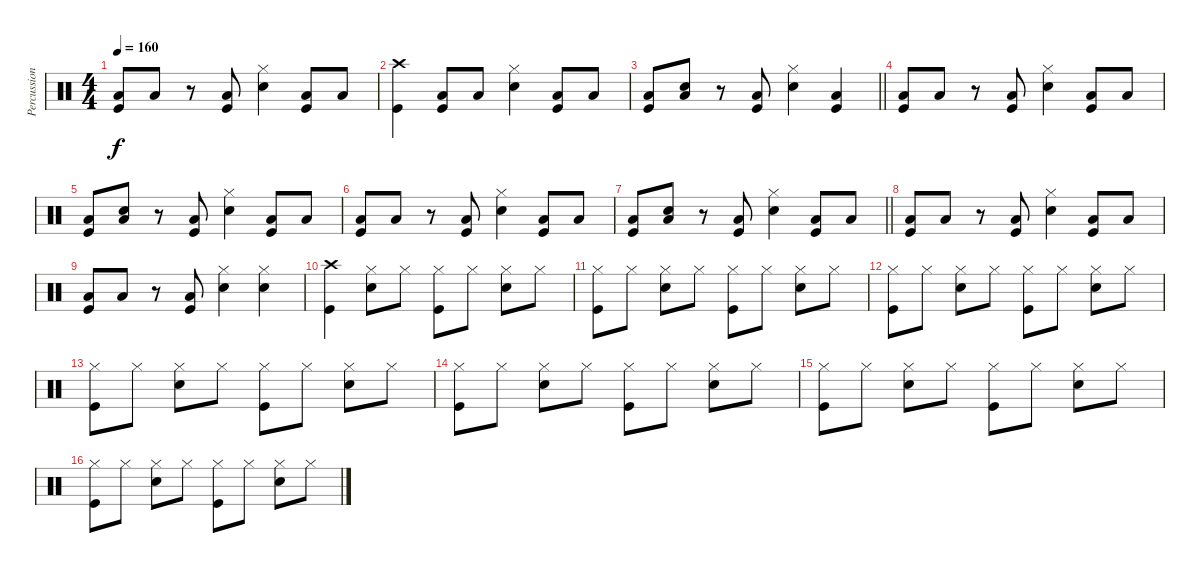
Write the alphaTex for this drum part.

\track ("Percussion" "Percussion") {instrument percussion}
\staff {score}
\articulation defaults
\ts (4 4)
\tempo 160
\clef neutral
\ks c
("Low Tom (hit)" "Kick (hit)").8{dy f} "Low Tom (hit)".8 r.8 ("Low Tom (hit)" "Kick (hit)").8 ("Hi-Hat (closed)" "Snare (hit) 2").4 ("Low Tom (hit)" "Kick (hit)").8 "Low Tom (hit)".8 |
("Kick (hit)" "Crash high (hit)").4 ("Low Tom (hit)" "Kick (hit)").8 "Low Tom (hit)".8 ("Hi-Hat (closed)" "Snare (hit) 2").4 ("Low Tom (hit)" "Kick (hit)").8 "Low Tom (hit)".8 |
\barLineRight lightlight
("Low Tom (hit)" "Kick (hit)").8 ("Low Tom (hit)" "Snare (hit) 2").8 r.8 ("Low Tom (hit)" "Kick (hit)").8 ("Hi-Hat (closed)" "Snare (hit) 2").4 ("Low Tom (hit)" "Kick (hit)").4 |
("Low Tom (hit)" "Kick (hit)").8 "Low Tom (hit)".8 r.8 ("Low Tom (hit)" "Kick (hit)").8 ("Hi-Hat (closed)" "Snare (hit) 2").4 ("Low Tom (hit)" "Kick (hit)").8 "Low Tom (hit)".8 |
("Low Tom (hit)" "Kick (hit)").8 ("Low Tom (hit)" "Snare (hit) 2").8 r.8 ("Low Tom (hit)" "Kick (hit)").8 ("Hi-Hat (closed)" "Snare (hit) 2").4 ("Low Tom (hit)" "Kick (hit)").8 "Low Tom (hit)".8 |
("Low Tom (hit)" "Kick (hit)").8 "Low Tom (hit)".8 r.8 ("Low Tom (hit)" "Kick (hit)").8 ("Hi-Hat (closed)" "Snare (hit) 2").4 ("Low Tom (hit)" "Kick (hit)").8 "Low Tom (hit)".8 |
\barLineRight lightlight
("Low Tom (hit)" "Kick (hit)").8 ("Low Tom (hit)" "Snare (hit) 2").8 r.8 ("Low Tom (hit)" "Kick (hit)").8 ("Hi-Hat (closed)" "Snare (hit) 2").4 ("Low Tom (hit)" "Kick (hit)").8 "Low Tom (hit)".8 |
("Low Tom (hit)" "Kick (hit)").8 "Low Tom (hit)".8 r.8 ("Low Tom (hit)" "Kick (hit)").8 ("Hi-Hat (closed)" "Snare (hit) 2").4 ("Low Tom (hit)" "Kick (hit)").8 "Low Tom (hit)".8 |
("Low Tom (hit)" "Kick (hit)").8 "Low Tom (hit)".8 r.8 ("Low Tom (hit)" "Kick (hit)").8 ("Hi-Hat (closed)" "Snare (hit) 2").4 ("Hi-Hat (closed)" "Snare (hit) 2").4 |
("Kick (hit)" "Crash high (hit)").4 ("Hi-Hat (closed)" "Snare (hit) 2").8 "Hi-Hat (closed)".8 ("Kick (hit)" "Hi-Hat (closed)").8 "Hi-Hat (closed)".8 ("Hi-Hat (closed)" "Snare (hit) 2").8 "Hi-Hat (closed)".8 |
("Kick (hit)" "Hi-Hat (closed)").8 "Hi-Hat (closed)".8 ("Hi-Hat (closed)" "Snare (hit) 2").8 "Hi-Hat (closed)".8 ("Kick (hit)" "Hi-Hat (closed)").8 "Hi-Hat (closed)".8 ("Hi-Hat (closed)" "Snare (hit) 2").8 "Hi-Hat (closed)".8 |
("Kick (hit)" "Hi-Hat (closed)").8 "Hi-Hat (closed)".8 ("Hi-Hat (closed)" "Snare (hit) 2").8 "Hi-Hat (closed)".8 ("Kick (hit)" "Hi-Hat (closed)").8 "Hi-Hat (closed)".8 ("Hi-Hat (closed)" "Snare (hit) 2").8 "Hi-Hat (closed)".8 |
("Kick (hit)" "Hi-Hat (closed)").8 "Hi-Hat (closed)".8 ("Hi-Hat (closed)" "Snare (hit) 2").8 "Hi-Hat (closed)".8 ("Kick (hit)" "Hi-Hat (closed)").8 "Hi-Hat (closed)".8 ("Hi-Hat (closed)" "Snare (hit) 2").8 "Hi-Hat (closed)".8 |
("Kick (hit)" "Hi-Hat (closed)").8 "Hi-Hat (closed)".8 ("Hi-Hat (closed)" "Snare (hit) 2").8 "Hi-Hat (closed)".8 ("Kick (hit)" "Hi-Hat (closed)").8 "Hi-Hat (closed)".8 ("Hi-Hat (closed)" "Snare (hit) 2").8 "Hi-Hat (closed)".8 |
("Kick (hit)" "Hi-Hat (closed)").8 "Hi-Hat (closed)".8 ("Hi-Hat (closed)" "Snare (hit) 2").8 "Hi-Hat (closed)".8 ("Kick (hit)" "Hi-Hat (closed)").8 "Hi-Hat (closed)".8 ("Hi-Hat (closed)" "Snare (hit) 2").8 "Hi-Hat (closed)".8 |
("Kick (hit)" "Hi-Hat (closed)").8 "Hi-Hat (closed)".8 ("Hi-Hat (closed)" "Snare (hit) 2").8 "Hi-Hat (closed)".8 ("Kick (hit)" "Hi-Hat (closed)").8 "Hi-Hat (closed)".8 ("Hi-Hat (closed)" "Snare (hit) 2").8 "Hi-Hat (closed)".8
